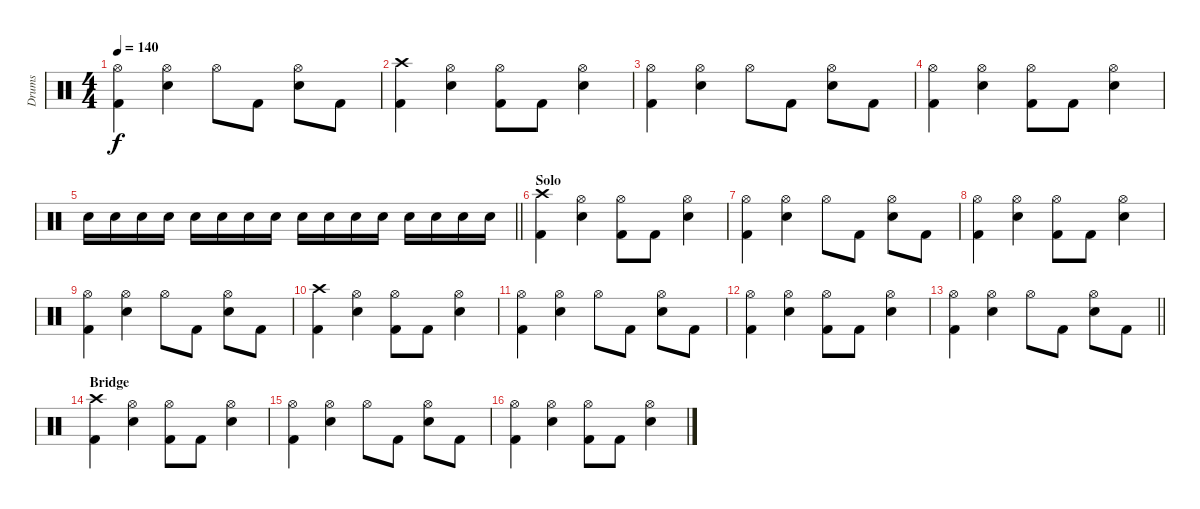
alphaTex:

\track ("Drums" "Drums") {instrument percussion}
\staff {score}
\articulation defaults
\ts (4 4)
\tempo 140
\clef neutral
\ks c
("Hi-Hat (open)" "Kick (hit) 2").4{dy f} ("Hi-Hat (open)" "Electric Snare (hit)").4 "Hi-Hat (open)".8 "Kick (hit) 2".8 ("Hi-Hat (open)" "Electric Snare (hit)").8 "Kick (hit) 2".8 |
("Crash high (hit)" "Kick (hit) 2").4 ("Hi-Hat (open)" "Electric Snare (hit)").4 ("Hi-Hat (open)" "Kick (hit) 2").8 "Kick (hit) 2".8 ("Hi-Hat (open)" "Electric Snare (hit)").4 |
("Hi-Hat (open)" "Kick (hit) 2").4 ("Hi-Hat (open)" "Electric Snare (hit)").4 "Hi-Hat (open)".8 "Kick (hit) 2".8 ("Hi-Hat (open)" "Electric Snare (hit)").8 "Kick (hit) 2".8 |
("Hi-Hat (open)" "Kick (hit) 2").4 ("Hi-Hat (open)" "Electric Snare (hit)").4 ("Hi-Hat (open)" "Kick (hit) 2").8 "Kick (hit) 2".8 ("Hi-Hat (open)" "Electric Snare (hit)").4 |
\barLineRight lightlight "Electric Snare (hit)".16 "Electric Snare (hit)".16 "Electric Snare (hit)".16 "Electric Snare (hit)".16 "Electric Snare (hit)".16 "Electric Snare (hit)".16 "Electric Snare (hit)".16 "Electric Snare (hit)".16 "Electric Snare (hit)".16 "Electric Snare (hit)".16 "Electric Snare (hit)".16 "Electric Snare (hit)".16 "Electric Snare (hit)".16 "Electric Snare (hit)".16 "Electric Snare (hit)".16 "Electric Snare (hit)".16
|
\section ("" "Solo")
("Crash high (hit)" "Kick (hit) 2").4 ("Hi-Hat (open)" "Electric Snare (hit)").4 ("Hi-Hat (open)" "Kick (hit) 2").8 "Kick (hit) 2".8 ("Hi-Hat (open)" "Electric Snare (hit)").4 |
("Hi-Hat (open)" "Kick (hit) 2").4 ("Hi-Hat (open)" "Electric Snare (hit)").4 "Hi-Hat (open)".8 "Kick (hit) 2".8 ("Hi-Hat (open)" "Electric Snare (hit)").8 "Kick (hit) 2".8 |
("Hi-Hat (open)" "Kick (hit) 2").4 ("Hi-Hat (open)" "Electric Snare (hit)").4 ("Hi-Hat (open)" "Kick (hit) 2").8 "Kick (hit) 2".8 ("Hi-Hat (open)" "Electric Snare (hit)").4 |
("Hi-Hat (open)" "Kick (hit) 2").4 ("Hi-Hat (open)" "Electric Snare (hit)").4 "Hi-Hat (open)".8 "Kick (hit) 2".8 ("Hi-Hat (open)" "Electric Snare (hit)").8 "Kick (hit) 2".8 |
("Crash high (hit)" "Kick (hit) 2").4 ("Hi-Hat (open)" "Electric Snare (hit)").4 ("Hi-Hat (open)" "Kick (hit) 2").8 "Kick (hit) 2".8 ("Hi-Hat (open)" "Electric Snare (hit)").4 |
("Hi-Hat (open)" "Kick (hit) 2").4 ("Hi-Hat (open)" "Electric Snare (hit)").4 "Hi-Hat (open)".8 "Kick (hit) 2".8 ("Hi-Hat (open)" "Electric Snare (hit)").8 "Kick (hit) 2".8 |
("Hi-Hat (open)" "Kick (hit) 2").4 ("Hi-Hat (open)" "Electric Snare (hit)").4 ("Hi-Hat (open)" "Kick (hit) 2").8 "Kick (hit) 2".8 ("Hi-Hat (open)" "Electric Snare (hit)").4 |
\barLineRight lightlight
("Hi-Hat (open)" "Kick (hit) 2").4 ("Hi-Hat (open)" "Electric Snare (hit)").4 "Hi-Hat (open)".8 "Kick (hit) 2".8 ("Hi-Hat (open)" "Electric Snare (hit)").8 "Kick (hit) 2".8 |
\section ("" "Bridge ")
("Crash high (hit)" "Kick (hit) 2").4 ("Hi-Hat (open)" "Electric Snare (hit)").4 ("Hi-Hat (open)" "Kick (hit) 2").8 "Kick (hit) 2".8 ("Hi-Hat (open)" "Electric Snare (hit)").4 |
("Hi-Hat (open)" "Kick (hit) 2").4 ("Hi-Hat (open)" "Electric Snare (hit)").4 "Hi-Hat (open)".8 "Kick (hit) 2".8 ("Hi-Hat (open)" "Electric Snare (hit)").8 "Kick (hit) 2".8 |
("Hi-Hat (open)" "Kick (hit) 2").4 ("Hi-Hat (open)" "Electric Snare (hit)").4 ("Hi-Hat (open)" "Kick (hit) 2").8 "Kick (hit) 2".8 ("Hi-Hat (open)" "Electric Snare (hit)").4
